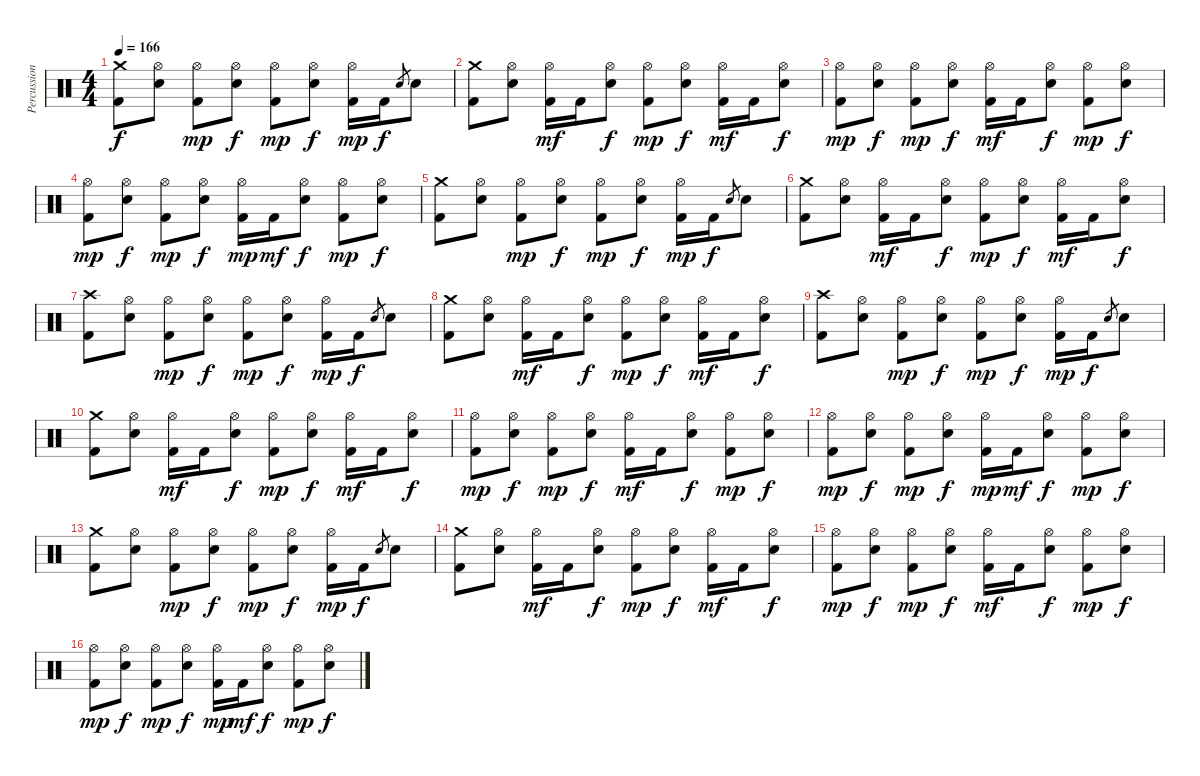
\track ("Percussion" "Percussion") {instrument percussion}
\staff {score}
\articulation defaults
\ts (4 4)
\tempo 166
\clef neutral
\ks c
("Crash medium (hit)" "Kick (hit) 2").8{dy f} ("Hi-Hat (open)" "Electric Snare (hit)").8 ("Hi-Hat (open)" "Kick (hit) 2").8{dy mp} ("Hi-Hat (open)" "Electric Snare (hit)").8{dy f} ("Hi-Hat (open)" "Kick (hit) 2").8{dy mp} ("Hi-Hat (open)" "Electric Snare (hit)").8{dy f} ("Hi-Hat (open)" "Kick (hit) 2").16{dy mp} "Kick (hit) 2".16{dy f} "Electric Snare (hit)".8{gr} "Electric Snare (hit)".8 |
("Crash medium (hit)" "Kick (hit) 2").8 ("Hi-Hat (open)" "Electric Snare (hit)").8 ("Hi-Hat (open)" "Kick (hit) 2").16{dy mf} "Kick (hit) 2".16 ("Hi-Hat (open)" "Electric Snare (hit)").8{dy f} ("Hi-Hat (open)" "Kick (hit) 2").8{dy mp} ("Hi-Hat (open)" "Electric Snare (hit)").8{dy f} ("Hi-Hat (open)" "Kick (hit) 2").16{dy mf} "Kick (hit) 2".16 ("Hi-Hat (open)" "Electric Snare (hit)").8{dy f} |
("Hi-Hat (open)" "Kick (hit) 2").8{dy mp} ("Hi-Hat (open)" "Electric Snare (hit)").8{dy f} ("Hi-Hat (open)" "Kick (hit) 2").8{dy mp} ("Hi-Hat (open)" "Electric Snare (hit)").8{dy f} ("Hi-Hat (open)" "Kick (hit) 2").16{dy mf} "Kick (hit) 2".16 ("Hi-Hat (open)" "Electric Snare (hit)").8{dy f} ("Hi-Hat (open)" "Kick (hit) 2").8{dy mp} ("Hi-Hat (open)" "Electric Snare (hit)").8{dy f} |
("Hi-Hat (open)" "Kick (hit) 2").8{dy mp} ("Hi-Hat (open)" "Electric Snare (hit)").8{dy f} ("Hi-Hat (open)" "Kick (hit) 2").8{dy mp} ("Hi-Hat (open)" "Electric Snare (hit)").8{dy f} ("Hi-Hat (open)" "Kick (hit) 2").16{dy mp} "Kick (hit) 2".16{dy mf} ("Hi-Hat (open)" "Electric Snare (hit)").8{dy f} ("Hi-Hat (open)" "Kick (hit) 2").8{dy mp} ("Hi-Hat (open)" "Electric Snare (hit)").8{dy f} |
("Crash medium (hit)" "Kick (hit) 2").8 ("Hi-Hat (open)" "Electric Snare (hit)").8 ("Hi-Hat (open)" "Kick (hit) 2").8{dy mp} ("Hi-Hat (open)" "Electric Snare (hit)").8{dy f} ("Hi-Hat (open)" "Kick (hit) 2").8{dy mp} ("Hi-Hat (open)" "Electric Snare (hit)").8{dy f} ("Hi-Hat (open)" "Kick (hit) 2").16{dy mp} "Kick (hit) 2".16{dy f} "Electric Snare (hit)".8{gr} "Electric Snare (hit)".8 |
("Crash medium (hit)" "Kick (hit) 2").8 ("Hi-Hat (open)" "Electric Snare (hit)").8 ("Hi-Hat (open)" "Kick (hit) 2").16{dy mf} "Kick (hit) 2".16 ("Hi-Hat (open)" "Electric Snare (hit)").8{dy f} ("Hi-Hat (open)" "Kick (hit) 2").8{dy mp} ("Hi-Hat (open)" "Electric Snare (hit)").8{dy f} ("Hi-Hat (open)" "Kick (hit) 2").16{dy mf} "Kick (hit) 2".16 ("Hi-Hat (open)" "Electric Snare (hit)").8{dy f} |
("Crash high (hit)" "Kick (hit) 2").8 ("Hi-Hat (open)" "Electric Snare (hit)").8 ("Hi-Hat (open)" "Kick (hit) 2").8{dy mp} ("Hi-Hat (open)" "Electric Snare (hit)").8{dy f} ("Hi-Hat (open)" "Kick (hit) 2").8{dy mp} ("Hi-Hat (open)" "Electric Snare (hit)").8{dy f} ("Hi-Hat (open)" "Kick (hit) 2").16{dy mp} "Kick (hit) 2".16{dy f} "Electric Snare (hit)".8{gr} "Electric Snare (hit)".8 |
("Crash medium (hit)" "Kick (hit) 2").8 ("Hi-Hat (open)" "Electric Snare (hit)").8 ("Hi-Hat (open)" "Kick (hit) 2").16{dy mf} "Kick (hit) 2".16 ("Hi-Hat (open)" "Electric Snare (hit)").8{dy f} ("Hi-Hat (open)" "Kick (hit) 2").8{dy mp} ("Hi-Hat (open)" "Electric Snare (hit)").8{dy f} ("Hi-Hat (open)" "Kick (hit) 2").16{dy mf} "Kick (hit) 2".16 ("Hi-Hat (open)" "Electric Snare (hit)").8{dy f} |
("Crash high (hit)" "Kick (hit) 2").8 ("Hi-Hat (open)" "Electric Snare (hit)").8 ("Hi-Hat (open)" "Kick (hit) 2").8{dy mp} ("Hi-Hat (open)" "Electric Snare (hit)").8{dy f} ("Hi-Hat (open)" "Kick (hit) 2").8{dy mp} ("Hi-Hat (open)" "Electric Snare (hit)").8{dy f} ("Hi-Hat (open)" "Kick (hit) 2").16{dy mp} "Kick (hit) 2".16{dy f} "Electric Snare (hit)".8{gr} "Electric Snare (hit)".8 |
("Crash medium (hit)" "Kick (hit) 2").8 ("Hi-Hat (open)" "Electric Snare (hit)").8 ("Hi-Hat (open)" "Kick (hit) 2").16{dy mf} "Kick (hit) 2".16 ("Hi-Hat (open)" "Electric Snare (hit)").8{dy f} ("Hi-Hat (open)" "Kick (hit) 2").8{dy mp} ("Hi-Hat (open)" "Electric Snare (hit)").8{dy f} ("Hi-Hat (open)" "Kick (hit) 2").16{dy mf} "Kick (hit) 2".16 ("Hi-Hat (open)" "Electric Snare (hit)").8{dy f} |
("Hi-Hat (open)" "Kick (hit) 2").8{dy mp} ("Hi-Hat (open)" "Electric Snare (hit)").8{dy f} ("Hi-Hat (open)" "Kick (hit) 2").8{dy mp} ("Hi-Hat (open)" "Electric Snare (hit)").8{dy f} ("Hi-Hat (open)" "Kick (hit) 2").16{dy mf} "Kick (hit) 2".16 ("Hi-Hat (open)" "Electric Snare (hit)").8{dy f} ("Hi-Hat (open)" "Kick (hit) 2").8{dy mp} ("Hi-Hat (open)" "Electric Snare (hit)").8{dy f} |
("Hi-Hat (open)" "Kick (hit) 2").8{dy mp} ("Hi-Hat (open)" "Electric Snare (hit)").8{dy f} ("Hi-Hat (open)" "Kick (hit) 2").8{dy mp} ("Hi-Hat (open)" "Electric Snare (hit)").8{dy f} ("Hi-Hat (open)" "Kick (hit) 2").16{dy mp} "Kick (hit) 2".16{dy mf} ("Hi-Hat (open)" "Electric Snare (hit)").8{dy f} ("Hi-Hat (open)" "Kick (hit) 2").8{dy mp} ("Hi-Hat (open)" "Electric Snare (hit)").8{dy f} |
("Crash medium (hit)" "Kick (hit) 2").8 ("Hi-Hat (open)" "Electric Snare (hit)").8 ("Hi-Hat (open)" "Kick (hit) 2").8{dy mp} ("Hi-Hat (open)" "Electric Snare (hit)").8{dy f} ("Hi-Hat (open)" "Kick (hit) 2").8{dy mp} ("Hi-Hat (open)" "Electric Snare (hit)").8{dy f} ("Hi-Hat (open)" "Kick (hit) 2").16{dy mp} "Kick (hit) 2".16{dy f} "Electric Snare (hit)".8{gr} "Electric Snare (hit)".8 |
("Crash medium (hit)" "Kick (hit) 2").8 ("Hi-Hat (open)" "Electric Snare (hit)").8 ("Hi-Hat (open)" "Kick (hit) 2").16{dy mf} "Kick (hit) 2".16 ("Hi-Hat (open)" "Electric Snare (hit)").8{dy f} ("Hi-Hat (open)" "Kick (hit) 2").8{dy mp} ("Hi-Hat (open)" "Electric Snare (hit)").8{dy f} ("Hi-Hat (open)" "Kick (hit) 2").16{dy mf} "Kick (hit) 2".16 ("Hi-Hat (open)" "Electric Snare (hit)").8{dy f} |
("Hi-Hat (open)" "Kick (hit) 2").8{dy mp} ("Hi-Hat (open)" "Electric Snare (hit)").8{dy f} ("Hi-Hat (open)" "Kick (hit) 2").8{dy mp} ("Hi-Hat (open)" "Electric Snare (hit)").8{dy f} ("Hi-Hat (open)" "Kick (hit) 2").16{dy mf} "Kick (hit) 2".16 ("Hi-Hat (open)" "Electric Snare (hit)").8{dy f} ("Hi-Hat (open)" "Kick (hit) 2").8{dy mp} ("Hi-Hat (open)" "Electric Snare (hit)").8{dy f} |
("Hi-Hat (open)" "Kick (hit) 2").8{dy mp} ("Hi-Hat (open)" "Electric Snare (hit)").8{dy f} ("Hi-Hat (open)" "Kick (hit) 2").8{dy mp} ("Hi-Hat (open)" "Electric Snare (hit)").8{dy f} ("Hi-Hat (open)" "Kick (hit) 2").16{dy mp} "Kick (hit) 2".16{dy mf} ("Hi-Hat (open)" "Electric Snare (hit)").8{dy f} ("Hi-Hat (open)" "Kick (hit) 2").8{dy mp} ("Hi-Hat (open)" "Electric Snare (hit)").8{dy f}
